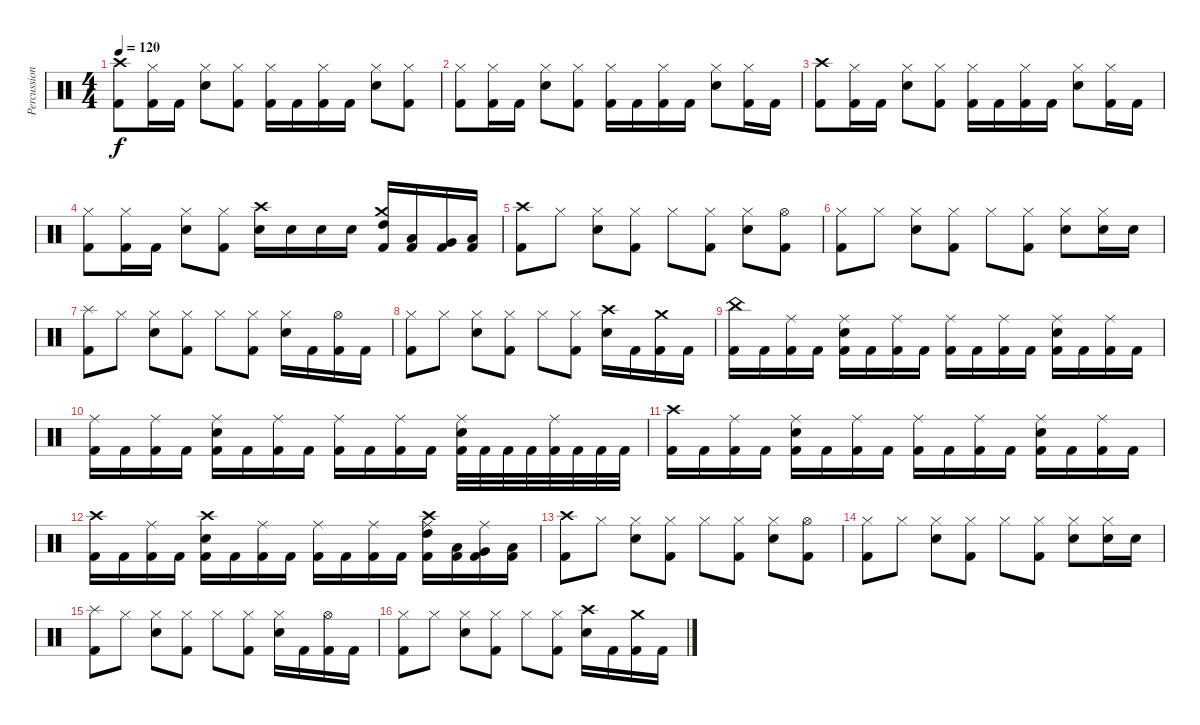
\track ("Percussion" "Percussion") {instrument percussion}
\staff {score}
\articulation defaults
\ts (4 4)
\tempo 120
\clef neutral
\ks c
("Crash high (hit)" "Kick (hit) 2").8{dy f} ("Hi-Hat (closed)" "Kick (hit) 2").16 "Kick (hit) 2".16 ("Hi-Hat (closed)" "Snare (hit) 2").8 ("Hi-Hat (closed)" "Kick (hit) 2").8 ("Hi-Hat (closed)" "Kick (hit) 2").16 "Kick (hit) 2".16 ("Hi-Hat (closed)" "Kick (hit) 2").16 "Kick (hit) 2".16 ("Hi-Hat (closed)" "Snare (hit) 2").8 ("Hi-Hat (closed)" "Kick (hit) 2").8 |
("Hi-Hat (closed)" "Kick (hit) 2").8 ("Hi-Hat (closed)" "Kick (hit) 2").16 "Kick (hit) 2".16 ("Hi-Hat (closed)" "Snare (hit) 2").8 ("Hi-Hat (closed)" "Kick (hit) 2").8 ("Hi-Hat (closed)" "Kick (hit) 2").16 "Kick (hit) 2".16 ("Hi-Hat (closed)" "Kick (hit) 2").16 "Kick (hit) 2".16 ("Hi-Hat (closed)" "Snare (hit) 2").8 ("Hi-Hat (closed)" "Kick (hit) 2").16 "Kick (hit) 2".16 |
("Crash high (hit)" "Kick (hit) 2").8 ("Hi-Hat (closed)" "Kick (hit) 2").16 "Kick (hit) 2".16 ("Hi-Hat (closed)" "Snare (hit) 2").8 ("Hi-Hat (closed)" "Kick (hit) 2").8 ("Hi-Hat (closed)" "Kick (hit) 2").16 "Kick (hit) 2".16 ("Hi-Hat (closed)" "Kick (hit) 2").16 "Kick (hit) 2".16 ("Hi-Hat (closed)" "Snare (hit) 2").8 ("Hi-Hat (closed)" "Kick (hit) 2").16 "Kick (hit) 2".16 |
("Hi-Hat (closed)" "Kick (hit) 2").8 ("Hi-Hat (closed)" "Kick (hit) 2").16 "Kick (hit) 2".16 ("Hi-Hat (closed)" "Snare (hit) 2").8 ("Hi-Hat (closed)" "Kick (hit) 2").8 ("Crash high (hit)" "Snare (hit) 2").16 "Snare (hit) 2".16 "Snare (hit) 2".16 "Snare (hit) 2".16 ("Crash medium (hit)" "High Tom (hit)" "Kick (hit) 2").16 ("Low Tom (hit)" "Kick (hit) 2").16 ("Very Low Tom (hit)" "Kick (hit) 2").16 ("Low Floor Tom (hit)" "Kick (hit) 2").16 |
("Crash high (hit)" "Kick (hit) 2").8 "Hi-Hat (closed)".8 ("Hi-Hat (closed)" "Snare (hit) 2").8 ("Hi-Hat (closed)" "Kick (hit) 2").8 "Hi-Hat (closed)".8 ("Hi-Hat (closed)" "Kick (hit) 2").8 ("Hi-Hat (closed)" "Snare (hit) 2").8 ("Hi-Hat (open)" "Kick (hit) 2").8 |
("Hi-Hat (closed)" "Kick (hit) 2").8 "Hi-Hat (closed)".8 ("Hi-Hat (closed)" "Snare (hit) 2").8 ("Hi-Hat (closed)" "Kick (hit) 2").8 "Hi-Hat (closed)".8 ("Hi-Hat (closed)" "Kick (hit) 2").8 ("Hi-Hat (closed)" "Snare (hit) 2").8 ("Hi-Hat (closed)" "Snare (hit) 2").16 "Snare (hit) 2".16 |
("Splash (hit)" "Kick (hit) 2").8 "Hi-Hat (closed)".8 ("Hi-Hat (closed)" "Snare (hit) 2").8 ("Hi-Hat (closed)" "Kick (hit) 2").8 "Hi-Hat (closed)".8 ("Hi-Hat (closed)" "Kick (hit) 2").8 ("Hi-Hat (closed)" "Snare (hit) 2").16 "Kick (hit) 2".16 ("Hi-Hat (open)" "Kick (hit) 2").16 "Kick (hit) 2".16 |
("Hi-Hat (closed)" "Kick (hit) 2").8 "Hi-Hat (closed)".8 ("Hi-Hat (closed)" "Snare (hit) 2").8 ("Hi-Hat (closed)" "Kick (hit) 2").8 "Hi-Hat (closed)".8 ("Hi-Hat (closed)" "Kick (hit) 2").8 ("Crash high (hit)" "Snare (hit) 2").16 "Kick (hit) 2".16 ("Crash medium (hit)" "Kick (hit) 2").16 "Kick (hit) 2".16 |
("China (hit)" "Kick (hit) 2").16 "Kick (hit) 2".16 ("Ride (middle)" "Kick (hit) 2").16 "Kick (hit) 2".16 ("Ride (middle)" "Snare (hit) 2" "Kick (hit) 2").16 "Kick (hit) 2".16 ("Ride (middle)" "Kick (hit) 2").16 "Kick (hit) 2".16 ("Ride (middle)" "Kick (hit) 2").16 "Kick (hit) 2".16 ("Ride (middle)" "Kick (hit) 2").16 "Kick (hit) 2".16 ("Ride (middle)" "Snare (hit) 2" "Kick (hit) 2").16 "Kick (hit) 2".16 ("Ride (middle)" "Kick (hit) 2").16 "Kick (hit) 2".16 |
("Ride (middle)" "Kick (hit) 2").16 "Kick (hit) 2".16 ("Ride (middle)" "Kick (hit) 2").16 "Kick (hit) 2".16 ("Ride (middle)" "Snare (hit) 2" "Kick (hit) 2").16 "Kick (hit) 2".16 ("Ride (middle)" "Kick (hit) 2").16 "Kick (hit) 2".16 ("Ride (middle)" "Kick (hit) 2").16 "Kick (hit) 2".16 ("Ride (middle)" "Kick (hit) 2").16 "Kick (hit) 2".16 ("Ride (middle)" "Snare (hit) 2" "Kick (hit) 2").32 "Kick (hit) 2".32 "Kick (hit) 2".32 "Kick (hit) 2".32 ("Ride (middle)" "Kick (hit) 2").32 "Kick (hit) 2".32 "Kick (hit) 2".32 "Kick (hit) 2".32 |
("Crash high (hit)" "Kick (hit) 2").16 "Kick (hit) 2".16 ("Ride (middle)" "Kick (hit) 2").16 "Kick (hit) 2".16 ("Ride (middle)" "Snare (hit) 2" "Kick (hit) 2").16 "Kick (hit) 2".16 ("Ride (middle)" "Kick (hit) 2").16 "Kick (hit) 2".16 ("Ride (middle)" "Kick (hit) 2").16 "Kick (hit) 2".16 ("Ride (middle)" "Kick (hit) 2").16 "Kick (hit) 2".16 ("Ride (middle)" "Snare (hit) 2" "Kick (hit) 2").16 "Kick (hit) 2".16 ("Ride (middle)" "Kick (hit) 2").16 "Kick (hit) 2".16 |
("Crash high (hit)" "Kick (hit) 2").16 "Kick (hit) 2".16 ("Ride (middle)" "Kick (hit) 2").16 "Kick (hit) 2".16 ("Crash high (hit)" "Snare (hit) 2" "Kick (hit) 2").16 "Kick (hit) 2".16 ("Ride (middle)" "Kick (hit) 2").16 "Kick (hit) 2".16 ("Ride (middle)" "Kick (hit) 2").16 "Kick (hit) 2".16 ("Ride (middle)" "Kick (hit) 2").16 "Kick (hit) 2".16 ("Crash high (hit)" "Ride (middle)" "High Tom (hit)" "Kick (hit) 2").16 ("Low Tom (hit)" "Kick (hit) 2").16 ("Ride (middle)" "Very Low Tom (hit)" "Kick (hit) 2").16 ("Low Floor Tom (hit)" "Kick (hit) 2").16 |
("Crash high (hit)" "Kick (hit) 2").8 "Hi-Hat (closed)".8 ("Hi-Hat (closed)" "Snare (hit) 2").8 ("Hi-Hat (closed)" "Kick (hit) 2").8 "Hi-Hat (closed)".8 ("Hi-Hat (closed)" "Kick (hit) 2").8 ("Hi-Hat (closed)" "Snare (hit) 2").8 ("Hi-Hat (open)" "Kick (hit) 2").8 |
("Hi-Hat (closed)" "Kick (hit) 2").8 "Hi-Hat (closed)".8 ("Hi-Hat (closed)" "Snare (hit) 2").8 ("Hi-Hat (closed)" "Kick (hit) 2").8 "Hi-Hat (closed)".8 ("Hi-Hat (closed)" "Kick (hit) 2").8 ("Hi-Hat (closed)" "Snare (hit) 2").8 ("Hi-Hat (closed)" "Snare (hit) 2").16 "Snare (hit) 2".16 |
("Splash (hit)" "Kick (hit) 2").8 "Hi-Hat (closed)".8 ("Hi-Hat (closed)" "Snare (hit) 2").8 ("Hi-Hat (closed)" "Kick (hit) 2").8 "Hi-Hat (closed)".8 ("Hi-Hat (closed)" "Kick (hit) 2").8 ("Hi-Hat (closed)" "Snare (hit) 2").16 "Kick (hit) 2".16 ("Hi-Hat (open)" "Kick (hit) 2").16 "Kick (hit) 2".16 |
("Hi-Hat (closed)" "Kick (hit) 2").8 "Hi-Hat (closed)".8 ("Hi-Hat (closed)" "Snare (hit) 2").8 ("Hi-Hat (closed)" "Kick (hit) 2").8 "Hi-Hat (closed)".8 ("Hi-Hat (closed)" "Kick (hit) 2").8 ("Crash high (hit)" "Snare (hit) 2").16 "Kick (hit) 2".16 ("Crash medium (hit)" "Kick (hit) 2").16 "Kick (hit) 2".16
